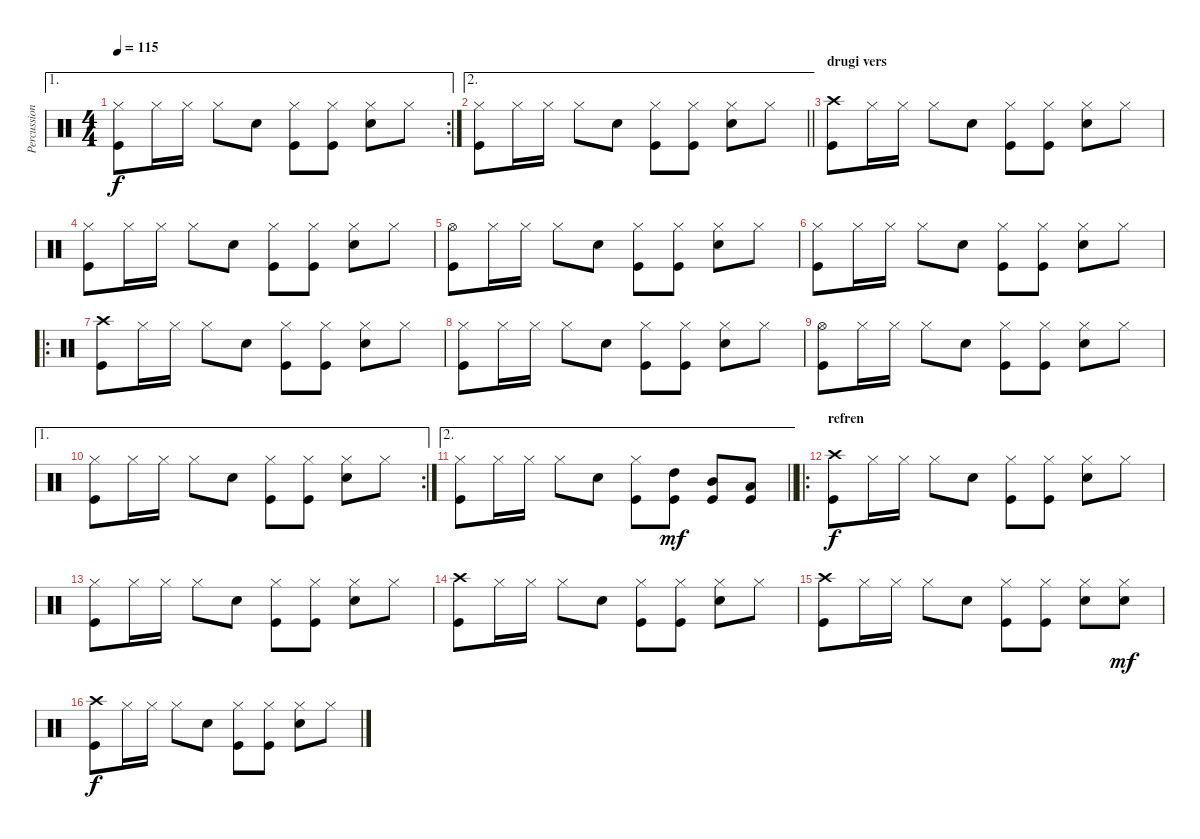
\track ("Percussion" "Percussion") {instrument percussion}
\staff {score}
\articulation defaults
\ae 1
\rc 2
\ts (4 4)
\tempo 115
\clef neutral
\ks c
("Hi-Hat (closed)" "Kick (hit)").8{dy f} "Hi-Hat (closed)".16 "Hi-Hat (closed)".16 "Hi-Hat (closed)".8 "Electric Snare (hit)".8 ("Hi-Hat (closed)" "Kick (hit)").8 ("Hi-Hat (closed)" "Kick (hit)").8 ("Hi-Hat (closed)" "Electric Snare (hit)").8 "Hi-Hat (closed)".8 |
\ae 2
\barLineRight lightlight
("Hi-Hat (closed)" "Kick (hit)").8 "Hi-Hat (closed)".16 "Hi-Hat (closed)".16 "Hi-Hat (closed)".8 "Electric Snare (hit)".8 ("Hi-Hat (closed)" "Kick (hit)").8 ("Hi-Hat (closed)" "Kick (hit)").8 ("Hi-Hat (closed)" "Electric Snare (hit)").8 "Hi-Hat (closed)".8 |
\section ("" "drugi vers")
("Crash high (hit)" "Kick (hit)").8 "Hi-Hat (closed)".16 "Hi-Hat (closed)".16 "Hi-Hat (closed)".8 "Electric Snare (hit)".8 ("Hi-Hat (closed)" "Kick (hit)").8 ("Hi-Hat (closed)" "Kick (hit)").8 ("Hi-Hat (closed)" "Electric Snare (hit)").8 "Hi-Hat (closed)".8 |
("Hi-Hat (closed)" "Kick (hit)").8 "Hi-Hat (closed)".16 "Hi-Hat (closed)".16 "Hi-Hat (closed)".8 "Electric Snare (hit)".8 ("Hi-Hat (closed)" "Kick (hit)").8 ("Hi-Hat (closed)" "Kick (hit)").8 ("Hi-Hat (closed)" "Electric Snare (hit)").8 "Hi-Hat (closed)".8 |
("Hi-Hat (open)" "Kick (hit)").8 "Hi-Hat (closed)".16 "Hi-Hat (closed)".16 "Hi-Hat (closed)".8 "Electric Snare (hit)".8 ("Hi-Hat (closed)" "Kick (hit)").8 ("Hi-Hat (closed)" "Kick (hit)").8 ("Hi-Hat (closed)" "Electric Snare (hit)").8 "Hi-Hat (closed)".8 |
("Hi-Hat (closed)" "Kick (hit)").8 "Hi-Hat (closed)".16 "Hi-Hat (closed)".16 "Hi-Hat (closed)".8 "Electric Snare (hit)".8 ("Hi-Hat (closed)" "Kick (hit)").8 ("Hi-Hat (closed)" "Kick (hit)").8 ("Hi-Hat (closed)" "Electric Snare (hit)").8 "Hi-Hat (closed)".8 |
\ro
("Crash high (hit)" "Kick (hit)").8 "Hi-Hat (closed)".16 "Hi-Hat (closed)".16 "Hi-Hat (closed)".8 "Electric Snare (hit)".8 ("Hi-Hat (closed)" "Kick (hit)").8 ("Hi-Hat (closed)" "Kick (hit)").8 ("Hi-Hat (closed)" "Electric Snare (hit)").8 "Hi-Hat (closed)".8 |
("Hi-Hat (closed)" "Kick (hit)").8 "Hi-Hat (closed)".16 "Hi-Hat (closed)".16 "Hi-Hat (closed)".8 "Electric Snare (hit)".8 ("Hi-Hat (closed)" "Kick (hit)").8 ("Hi-Hat (closed)" "Kick (hit)").8 ("Hi-Hat (closed)" "Electric Snare (hit)").8 "Hi-Hat (closed)".8 |
("Hi-Hat (open)" "Kick (hit)").8 "Hi-Hat (closed)".16 "Hi-Hat (closed)".16 "Hi-Hat (closed)".8 "Electric Snare (hit)".8 ("Hi-Hat (closed)" "Kick (hit)").8 ("Hi-Hat (closed)" "Kick (hit)").8 ("Hi-Hat (closed)" "Electric Snare (hit)").8 "Hi-Hat (closed)".8 |
\ae 1
\rc 2
("Hi-Hat (closed)" "Kick (hit)").8 "Hi-Hat (closed)".16 "Hi-Hat (closed)".16 "Hi-Hat (closed)".8 "Electric Snare (hit)".8 ("Hi-Hat (closed)" "Kick (hit)").8 ("Hi-Hat (closed)" "Kick (hit)").8 ("Hi-Hat (closed)" "Electric Snare (hit)").8 "Hi-Hat (closed)".8 |
\ae 2
\barLineRight lightlight
("Hi-Hat (closed)" "Kick (hit)").8 "Hi-Hat (closed)".16 "Hi-Hat (closed)".16 "Hi-Hat (closed)".8 "Electric Snare (hit)".8 ("Hi-Hat (closed)" "Kick (hit)").8 ("High Tom (hit)" "Kick (hit)").8{dy mf} ("Mid Tom (hit)" "Kick (hit)").8 ("Low Tom (hit)" "Kick (hit)").8 |
\ro
\section ("" "refren")
("Crash high (hit)" "Kick (hit)").8{dy f} "Hi-Hat (closed)".16 "Hi-Hat (closed)".16 "Hi-Hat (closed)".8 "Electric Snare (hit)".8 ("Hi-Hat (closed)" "Kick (hit)").8 ("Hi-Hat (closed)" "Kick (hit)").8 ("Hi-Hat (closed)" "Electric Snare (hit)").8 "Hi-Hat (closed)".8 |
("Hi-Hat (closed)" "Kick (hit)").8 "Hi-Hat (closed)".16 "Hi-Hat (closed)".16 "Hi-Hat (closed)".8 "Electric Snare (hit)".8 ("Hi-Hat (closed)" "Kick (hit)").8 ("Hi-Hat (closed)" "Kick (hit)").8 ("Hi-Hat (closed)" "Electric Snare (hit)").8 "Hi-Hat (closed)".8 |
("Crash high (hit)" "Kick (hit)").8 "Hi-Hat (closed)".16 "Hi-Hat (closed)".16 "Hi-Hat (closed)".8 "Electric Snare (hit)".8 ("Hi-Hat (closed)" "Kick (hit)").8 ("Hi-Hat (closed)" "Kick (hit)").8 ("Hi-Hat (closed)" "Electric Snare (hit)").8 "Hi-Hat (closed)".8 |
("Crash high (hit)" "Kick (hit)").8 "Hi-Hat (closed)".16 "Hi-Hat (closed)".16 "Hi-Hat (closed)".8 "Electric Snare (hit)".8 ("Hi-Hat (closed)" "Kick (hit)").8 ("Hi-Hat (closed)" "Kick (hit)").8 ("Hi-Hat (closed)" "Electric Snare (hit)").8 ("Hi-Hat (closed)" "Electric Snare (hit)").8{dy mf} |
("Crash high (hit)" "Kick (hit)").8{dy f} "Hi-Hat (closed)".16 "Hi-Hat (closed)".16 "Hi-Hat (closed)".8 "Electric Snare (hit)".8 ("Hi-Hat (closed)" "Kick (hit)").8 ("Hi-Hat (closed)" "Kick (hit)").8 ("Hi-Hat (closed)" "Electric Snare (hit)").8 "Hi-Hat (closed)".8
